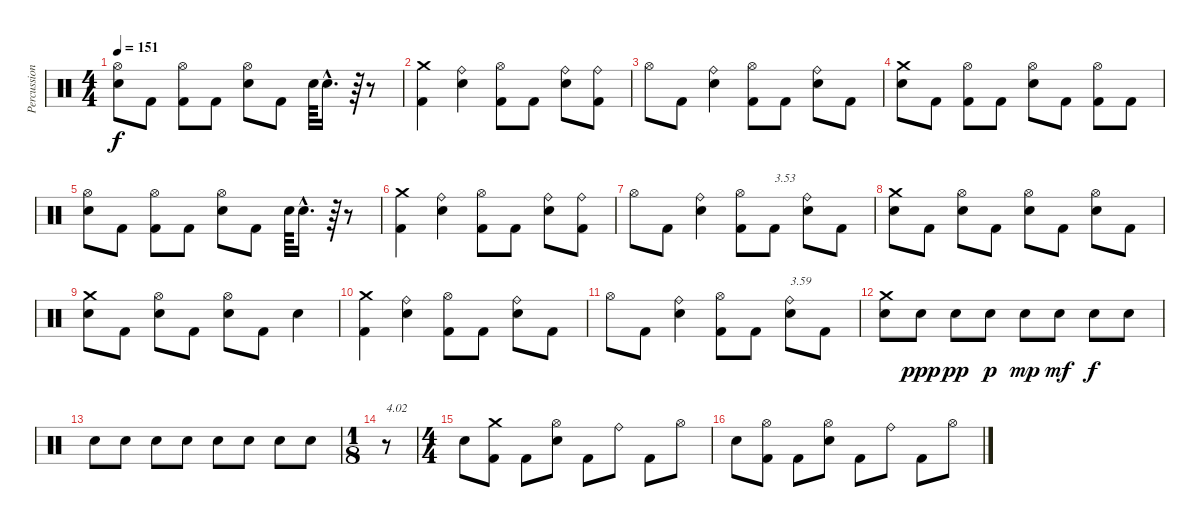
\track ("Percussions" "Percussion") {instrument percussion}
\staff {score}
\articulation defaults
\ts (4 4)
\tempo 151
\clef neutral
\ks c
("Electric Snare (hit)" "Hi-Hat (open)").8{dy f} "Kick (hit) 2".8 ("Kick (hit) 2" "Hi-Hat (open)").8 "Kick (hit) 2".8 ("Electric Snare (hit)" "Hi-Hat (open)").8 "Kick (hit) 2".8 "Electric Snare (hit)".64 "Electric Snare (hit)"{hac}.16{d} r.64 r.8 |
("Kick (hit) 2" "Crash medium (hit)").4 ("Electric Snare (hit)" "Ride (bell)").4 ("Kick (hit) 2" "Hi-Hat (open)").8 "Kick (hit) 2".8 ("Electric Snare (hit)" "Ride (bell)").8 ("Kick (hit) 2" "Ride (bell)").8 |
"Hi-Hat (open)".8 "Kick (hit) 2".8 ("Electric Snare (hit)" "Ride (bell)").4 ("Kick (hit) 2" "Hi-Hat (open)").8 "Kick (hit) 2".8 ("Electric Snare (hit)" "Ride (bell)").8 "Kick (hit) 2".8 |
("Electric Snare (hit)" "Crash medium (hit)").8 "Kick (hit) 2".8 ("Kick (hit) 2" "Hi-Hat (open)").8 "Kick (hit) 2".8 ("Electric Snare (hit)" "Hi-Hat (open)").8 "Kick (hit) 2".8 ("Kick (hit) 2" "Hi-Hat (open)").8 "Kick (hit) 2".8 |
("Electric Snare (hit)" "Hi-Hat (open)").8 "Kick (hit) 2".8 ("Kick (hit) 2" "Hi-Hat (open)").8 "Kick (hit) 2".8 ("Electric Snare (hit)" "Hi-Hat (open)").8 "Kick (hit) 2".8 "Electric Snare (hit)".64 "Electric Snare (hit)"{hac}.16{d} r.64 r.8 |
("Kick (hit) 2" "Crash medium (hit)").4 ("Electric Snare (hit)" "Ride (bell)").4 ("Kick (hit) 2" "Hi-Hat (open)").8 "Kick (hit) 2".8 ("Electric Snare (hit)" "Ride (bell)").8 ("Kick (hit) 2" "Ride (bell)").8 |
"Hi-Hat (open)".8 "Kick (hit) 2".8 ("Electric Snare (hit)" "Ride (bell)").4 ("Kick (hit) 2" "Hi-Hat (open)").8 "Kick (hit) 2".8{txt "3.53"} ("Electric Snare (hit)" "Ride (bell)").8 "Kick (hit) 2".8 |
("Electric Snare (hit)" "Crash medium (hit)").8 "Kick (hit) 2".8 ("Electric Snare (hit)" "Hi-Hat (open)").8 "Kick (hit) 2".8 ("Electric Snare (hit)" "Hi-Hat (open)").8 "Kick (hit) 2".8 ("Electric Snare (hit)" "Hi-Hat (open)").8 "Kick (hit) 2".8 |
("Electric Snare (hit)" "Crash medium (hit)").8 "Kick (hit) 2".8 ("Electric Snare (hit)" "Hi-Hat (open)").8 "Kick (hit) 2".8 ("Electric Snare (hit)" "Hi-Hat (open)").8 "Kick (hit) 2".8 "Electric Snare (hit)".4 |
("Kick (hit) 2" "Crash medium (hit)").4 ("Electric Snare (hit)" "Ride (bell)").4 ("Kick (hit) 2" "Hi-Hat (open)").8 "Kick (hit) 2".8 ("Electric Snare (hit)" "Ride (bell)").8 "Kick (hit) 2".8 |
"Hi-Hat (open)".8 "Kick (hit) 2".8 ("Electric Snare (hit)" "Ride (bell)").4 ("Kick (hit) 2" "Hi-Hat (open)").8 "Kick (hit) 2".8 ("Electric Snare (hit)" "Ride (bell)").8{txt "3.59"} "Kick (hit) 2".8 |
("Electric Snare (hit)" "Crash medium (hit)").8 "Electric Snare (hit)".8{dy ppp} "Electric Snare (hit)".8{dy pp} "Electric Snare (hit)".8{dy p} "Electric Snare (hit)".8{dy mp} "Electric Snare (hit)".8{dy mf} "Electric Snare (hit)".8{dy f} "Electric Snare (hit)".8 |
"Electric Snare (hit)".8 "Electric Snare (hit)".8 "Electric Snare (hit)".8 "Electric Snare (hit)".8 "Electric Snare (hit)".8 "Electric Snare (hit)".8 "Electric Snare (hit)".8 "Electric Snare (hit)".8 |
\ts (1 8)
r.8{txt "4.02"} |
\ts (4 4)
"Electric Snare (hit)".8 ("Kick (hit) 2" "Crash medium (hit)").8 "Kick (hit) 2".8 ("Electric Snare (hit)" "Hi-Hat (open)").8 "Kick (hit) 2".8 "Ride (bell)".8 "Kick (hit) 2".8 "Hi-Hat (open)".8 |
"Electric Snare (hit)".8 ("Kick (hit) 2" "Hi-Hat (open)").8 "Kick (hit) 2".8 ("Electric Snare (hit)" "Hi-Hat (open)").8 "Kick (hit) 2".8 "Ride (bell)".8 "Kick (hit) 2".8 "Hi-Hat (open)".8
